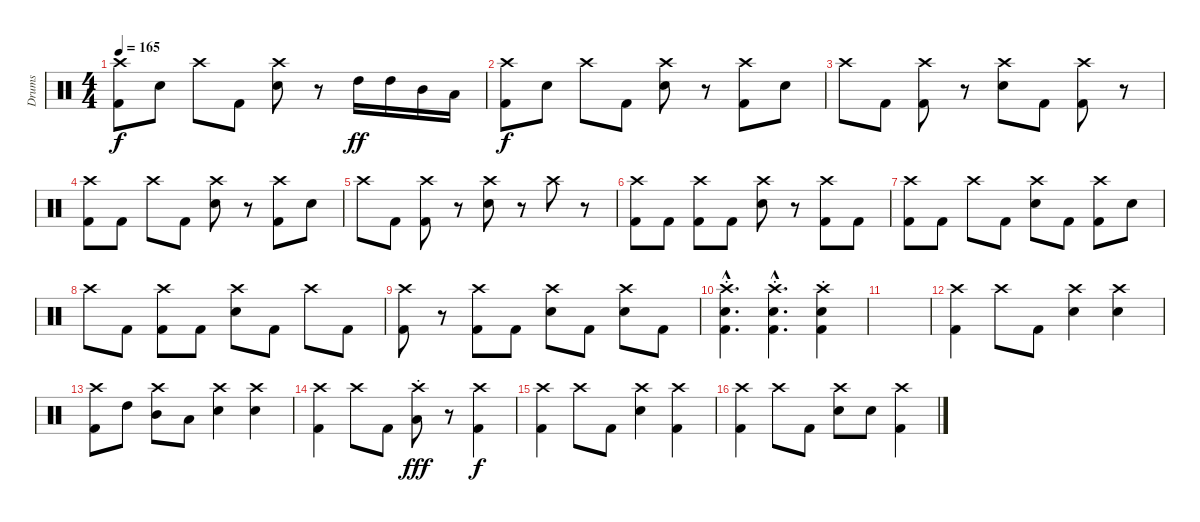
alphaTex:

\track ("Drums" "Drums") {instrument percussion}
\staff {score}
\articulation defaults
\ts (4 4)
\tempo 165
\clef neutral
\ks c
("Crash high (hit)" "Kick (hit) 2").8{dy f} "Electric Snare (hit)".8 "Crash high (hit)".8 "Kick (hit) 2".8 ("Crash high (hit)" "Electric Snare (hit)").8 r.8 "High Tom (hit)".16{dy ff} "High Tom (hit)".16 "Mid Tom (hit)".16 "Low Tom (hit)".16 |
("Crash high (hit)" "Kick (hit) 2").8{dy f} "Electric Snare (hit)".8 "Crash high (hit)".8 "Kick (hit) 2".8 ("Crash high (hit)" "Electric Snare (hit)").8 r.8 ("Crash high (hit)" "Kick (hit) 2").8 "Electric Snare (hit)".8 |
"Crash high (hit)".8 "Kick (hit) 2".8 ("Crash high (hit)" "Kick (hit) 2").8 r.8 ("Crash high (hit)" "Electric Snare (hit)").8 "Kick (hit) 2".8 ("Crash high (hit)" "Kick (hit) 2").8 r.8 |
("Crash high (hit)" "Kick (hit) 2").8 "Kick (hit) 2".8 "Crash high (hit)".8 "Kick (hit) 2".8 ("Crash high (hit)" "Electric Snare (hit)").8 r.8 ("Crash high (hit)" "Kick (hit) 2").8 "Electric Snare (hit)".8 |
"Crash high (hit)".8 "Kick (hit) 2".8 ("Crash high (hit)" "Kick (hit) 2").8 r.8 ("Crash high (hit)" "Electric Snare (hit)").8 r.8 "Crash high (hit)".8 r.8 |
("Crash high (hit)" "Kick (hit) 2").8 "Kick (hit) 2".8 ("Crash high (hit)" "Kick (hit) 2").8 "Kick (hit) 2".8 ("Crash high (hit)" "Electric Snare (hit)").8 r.8 ("Crash high (hit)" "Kick (hit) 2").8 "Kick (hit) 2".8 |
("Crash high (hit)" "Kick (hit) 2").8 "Kick (hit) 2".8 "Crash high (hit)".8 "Kick (hit) 2".8 ("Crash high (hit)" "Electric Snare (hit)").8 "Kick (hit) 2".8 ("Crash high (hit)" "Kick (hit) 2").8 "Electric Snare (hit)".8 |
"Crash high (hit)".8 "Kick (hit) 2".8 ("Crash high (hit)" "Kick (hit) 2").8 "Kick (hit) 2".8 ("Crash high (hit)" "Electric Snare (hit)").8 "Kick (hit) 2".8 "Crash high (hit)".8 "Kick (hit) 2".8 |
("Crash high (hit)" "Kick (hit) 2").8 r.8 ("Crash high (hit)" "Kick (hit) 2").8 "Kick (hit) 2".8 ("Crash high (hit)" "Electric Snare (hit)").8 "Kick (hit) 2".8 ("Crash high (hit)" "Electric Snare (hit)").8 "Kick (hit) 2".8 |
("Crash high (hit)"{hac st} "Electric Snare (hit)"{hac} "Kick (hit) 2"{hac}).4{d} ("Crash high (hit)"{hac st} "Electric Snare (hit)"{hac} "Kick (hit) 2"{hac}).4{d} ("Crash high (hit)"{st} "Electric Snare (hit)" "Kick (hit) 2").4 |
|
("Crash high (hit)" "Kick (hit) 2").4 "Crash high (hit)".8 "Kick (hit) 2".8 ("Crash high (hit)" "Electric Snare (hit)").4 ("Crash high (hit)" "Electric Snare (hit)").4 |
("Crash high (hit)" "Kick (hit) 2").8 "High Tom (hit)".8 ("Crash high (hit)" "Mid Tom (hit)").8 "Low Tom (hit)".8 ("Crash high (hit)" "Electric Snare (hit)").4 ("Crash high (hit)" "Electric Snare (hit)").4 |
("Crash high (hit)" "Kick (hit) 2").4 "Crash high (hit)".8 "Kick (hit) 2".8 ("Crash high (hit)"{st} "Low Tom (hit)").8{dy fff} r.8 ("Crash high (hit)" "Kick (hit) 2").4{dy f} |
("Crash high (hit)" "Kick (hit) 2").4 "Crash high (hit)".8 "Kick (hit) 2".8 ("Crash high (hit)" "Electric Snare (hit)").4 ("Crash high (hit)" "Kick (hit) 2").4 |
("Crash high (hit)" "Kick (hit) 2").4 "Crash high (hit)".8 "Kick (hit) 2".8 ("Crash high (hit)" "Electric Snare (hit)").8 "Electric Snare (hit)".8 ("Crash high (hit)" "Kick (hit) 2").4
